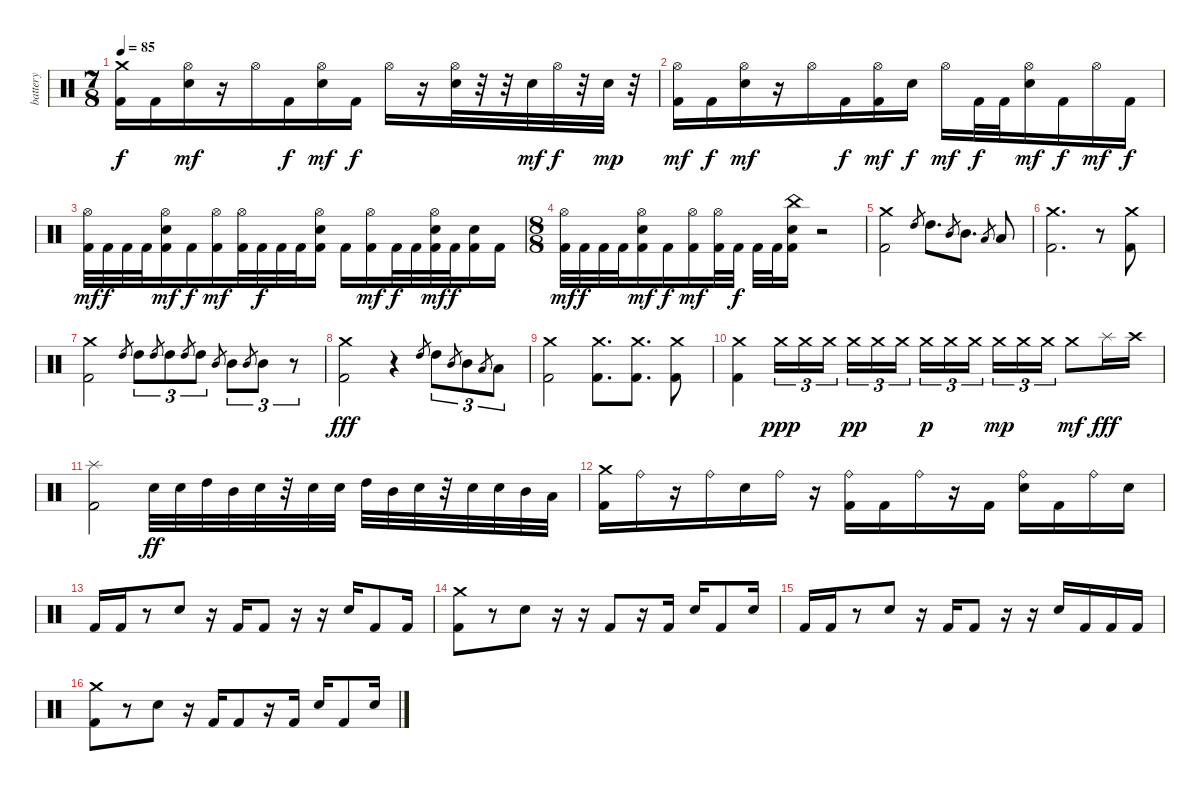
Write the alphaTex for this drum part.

\track ("battery" "battery") {instrument percussion}
\staff {score}
\articulation defaults
\ts (7 8)
\tempo 85
\clef neutral
\ks c
("Crash medium (hit)" "Kick (hit) 2").16{dy f} "Kick (hit) 2".16 ("Hi-Hat (open)" "Electric Snare (hit)").16{dy mf} r.16 "Hi-Hat (open)".16 "Kick (hit) 2".16{dy f} ("Hi-Hat (open)" "Electric Snare (hit)").16{dy mf} "Kick (hit) 2".16{dy f} "Hi-Hat (open)".16 r.16 ("Hi-Hat (open)" "Electric Snare (hit)").32 r.32 r.32 "Electric Snare (hit)".32{dy mf} "Hi-Hat (open)".32{dy f} r.32 "Electric Snare (hit)".32{dy mp} r.32 |
("Hi-Hat (open)" "Kick (hit) 2").16{dy mf} "Kick (hit) 2".16{dy f} ("Hi-Hat (open)" "Electric Snare (hit)").16{dy mf} r.16 "Hi-Hat (open)".16 "Kick (hit) 2".16{dy f} ("Hi-Hat (open)" "Kick (hit) 2").16{dy mf} "Electric Snare (hit)".16{dy f} "Hi-Hat (open)".16{dy mf} "Kick (hit) 2".32{dy f} "Kick (hit) 2".32 ("Hi-Hat (open)" "Electric Snare (hit)").16{dy mf} "Kick (hit) 2".16{dy f} "Hi-Hat (open)".16{dy mf} "Kick (hit) 2".16{dy f} |
("Hi-Hat (open)" "Kick (hit) 2").32{dy mf} "Kick (hit) 2".32{dy f} "Kick (hit) 2".32 "Kick (hit) 2".32 ("Hi-Hat (open)" "Electric Snare (hit)" "Kick (hit) 2").16{dy mf} "Kick (hit) 2".16{dy f} ("Hi-Hat (open)" "Kick (hit) 2").16{dy mf} ("Hi-Hat (open)" "Kick (hit) 2").32 "Kick (hit) 2".32{dy f} "Kick (hit) 2".32 "Kick (hit) 2".32 ("Hi-Hat (open)" "Electric Snare (hit)" "Kick (hit) 2").16 "Kick (hit) 2".16 ("Hi-Hat (open)" "Kick (hit) 2").16{dy mf} "Kick (hit) 2".32{dy f} "Kick (hit) 2".32 ("Hi-Hat (open)" "Electric Snare (hit)" "Kick (hit) 2").32{dy mf} "Kick (hit) 2".32{dy f} ("Electric Snare (hit)" "Kick (hit) 2").16 "Kick (hit) 2".16 |
\ts (8 8)
("Hi-Hat (open)" "Kick (hit) 2").32{dy mf} "Kick (hit) 2".32{dy f} "Kick (hit) 2".32 "Kick (hit) 2".32 ("Hi-Hat (open)" "Electric Snare (hit)" "Kick (hit) 2").16{dy mf} "Kick (hit) 2".16{dy f} ("Hi-Hat (open)" "Kick (hit) 2").16{dy mf} ("Hi-Hat (open)" "Kick (hit) 2").32 "Kick (hit) 2".32{dy f} "Kick (hit) 2".32 "Kick (hit) 2".32 ("China (hit)" "Electric Snare (hit)" "Kick (hit) 2").16 r.2 |
("Crash medium (hit)" "Kick (hit) 2").2 "High Tom (hit)".8{gr} "High Tom (hit)".8{d} "Mid Tom (hit)".8{gr} "Mid Tom (hit)".8{d} "Low Tom (hit)".8{gr} "Low Tom (hit)".8 |
("Crash medium (hit)" "Kick (hit) 2").2{d} r.8 ("Crash medium (hit)" "Kick (hit) 2").8 |
("Crash medium (hit)" "Kick (hit) 2").2 "High Tom (hit)".8{gr} "High Tom (hit)".8{tu (3 2)} "High Tom (hit)".8{gr} "High Tom (hit)".8{tu (3 2)} "High Tom (hit)".8{gr} "High Tom (hit)".8{tu (3 2)} "Mid Tom (hit)".8{gr} "Mid Tom (hit)".8{tu (3 2)} "Mid Tom (hit)".8{gr} "Mid Tom (hit)".8{tu (3 2)} r.8{tu (3 2)} |
("Crash medium (hit)" "Kick (hit) 2").2{dy fff} r.4 "High Tom (hit)".8{gr} "High Tom (hit)".8{tu (3 2)} "Mid Tom (hit)".8{gr} "Mid Tom (hit)".8{tu (3 2)} "Low Tom (hit)".8{gr} "Low Tom (hit)".8{tu (3 2)} |
("Crash medium (hit)" "Kick (hit) 2").2 ("Crash medium (hit)" "Kick (hit) 2").8{d} ("Crash medium (hit)" "Kick (hit) 2").8{d} ("Crash medium (hit)" "Kick (hit) 2").8 |
("Crash medium (hit)" "Kick (hit) 2").4 "Crash medium (hit)".16{tu (3 2) dy ppp} "Crash medium (hit)".16{tu (3 2)} "Crash medium (hit)".16{tu (3 2)} "Crash medium (hit)".16{tu (3 2) dy pp} "Crash medium (hit)".16{tu (3 2)} "Crash medium (hit)".16{tu (3 2)} "Crash medium (hit)".16{tu (3 2) dy p} "Crash medium (hit)".16{tu (3 2)} "Crash medium (hit)".16{tu (3 2)} "Crash medium (hit)".16{tu (3 2) dy mp} "Crash medium (hit)".16{tu (3 2)} "Crash medium (hit)".16{tu (3 2)} "Crash medium (hit)".8{dy mf} "Splash (hit)".16{dy fff} "Crash high (hit)".16 |
("Splash (hit)" "Kick (hit) 2").2 "Electric Snare (hit)".32{dy ff} "Electric Snare (hit)".32 "High Tom (hit)".32 "Mid Tom (hit)".32 "Electric Snare (hit)".32 r.32 "Electric Snare (hit)".32 "Electric Snare (hit)".32 "High Tom (hit)".32 "Mid Tom (hit)".32 "Electric Snare (hit)".32 r.32 "Electric Snare (hit)".32 "Electric Snare (hit)".32 "Mid Tom (hit)".32 "Low Tom (hit)".32 |
("Crash medium (hit)" "Kick (hit) 2").16 "Ride (bell)".16 r.16 "Ride (bell)".16 "Electric Snare (hit)".16 "Ride (bell)".16 r.16 ("Ride (bell)" "Kick (hit) 2").16 "Kick (hit) 2".16 "Ride (bell)".16 r.16 "Kick (hit) 2".16 ("Ride (bell)" "Electric Snare (hit)").16 "Kick (hit) 2".16 "Ride (bell)".16 "Electric Snare (hit)".16 |
"Kick (hit) 2".16 "Kick (hit) 2".16 r.8 "Electric Snare (hit)".8 r.16 "Kick (hit) 2".16 "Kick (hit) 2".8 r.16 r.16 "Electric Snare (hit)".16 "Kick (hit) 2".8 "Kick (hit) 2".16 |
("Crash medium (hit)" "Kick (hit) 2").8 r.8 "Electric Snare (hit)".8 r.16 r.16 "Kick (hit) 2".8 r.16 "Kick (hit) 2".16 "Electric Snare (hit)".16 "Kick (hit) 2".8 "Electric Snare (hit)".16 |
"Kick (hit) 2".16 "Kick (hit) 2".16 r.8 "Electric Snare (hit)".8 r.16 "Kick (hit) 2".16 "Kick (hit) 2".8 r.16 r.16 "Electric Snare (hit)".16 "Kick (hit) 2".16 "Kick (hit) 2".16 "Kick (hit) 2".16 |
("Crash medium (hit)" "Kick (hit) 2").8 r.8 "Electric Snare (hit)".8 r.16 "Kick (hit) 2".16 "Kick (hit) 2".8 r.16 "Kick (hit) 2".16 "Electric Snare (hit)".16 "Kick (hit) 2".8 "Electric Snare (hit)".16
